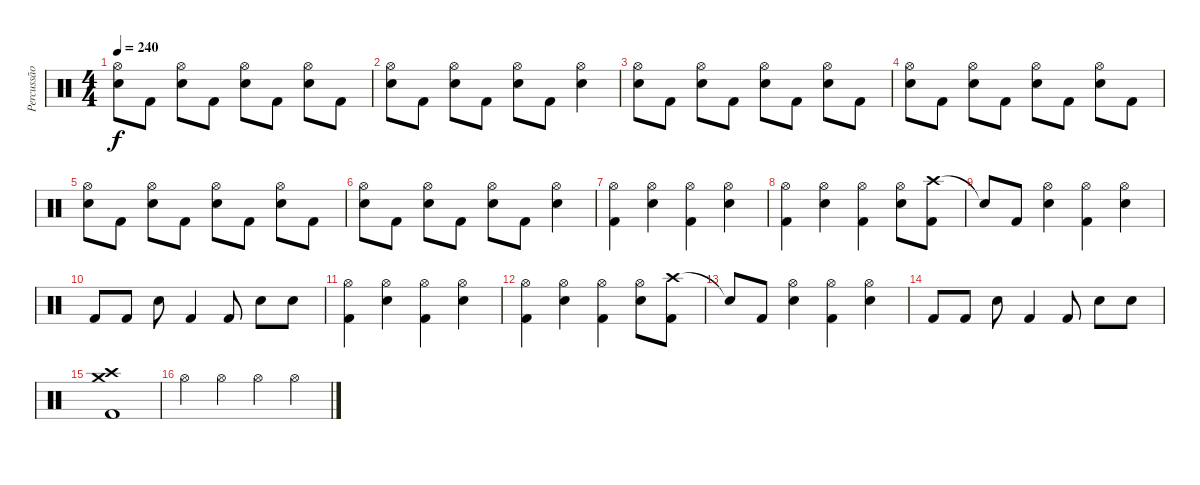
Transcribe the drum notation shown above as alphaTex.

\track ("Percussão" "Percussão") {instrument percussion}
\staff {score}
\articulation defaults
\ts (4 4)
\tempo 240
\clef neutral
\ks c
("Hi-Hat (open)" "Electric Snare (hit)").8{dy f} "Kick (hit) 2".8 ("Hi-Hat (open)" "Electric Snare (hit)").8 "Kick (hit) 2".8 ("Hi-Hat (open)" "Electric Snare (hit)").8 "Kick (hit) 2".8 ("Hi-Hat (open)" "Electric Snare (hit)").8 "Kick (hit) 2".8 |
("Hi-Hat (open)" "Electric Snare (hit)").8 "Kick (hit) 2".8 ("Hi-Hat (open)" "Electric Snare (hit)").8 "Kick (hit) 2".8 ("Hi-Hat (open)" "Electric Snare (hit)").8 "Kick (hit) 2".8 ("Hi-Hat (open)" "Electric Snare (hit)").4 |
("Hi-Hat (open)" "Electric Snare (hit)").8 "Kick (hit) 2".8 ("Hi-Hat (open)" "Electric Snare (hit)").8 "Kick (hit) 2".8 ("Hi-Hat (open)" "Electric Snare (hit)").8 "Kick (hit) 2".8 ("Hi-Hat (open)" "Electric Snare (hit)").8 "Kick (hit) 2".8 |
("Hi-Hat (open)" "Electric Snare (hit)").8 "Kick (hit) 2".8 ("Hi-Hat (open)" "Electric Snare (hit)").8 "Kick (hit) 2".8 ("Hi-Hat (open)" "Electric Snare (hit)").8 "Kick (hit) 2".8 ("Hi-Hat (open)" "Electric Snare (hit)").8 "Kick (hit) 2".8 |
("Hi-Hat (open)" "Electric Snare (hit)").8 "Kick (hit) 2".8 ("Hi-Hat (open)" "Electric Snare (hit)").8 "Kick (hit) 2".8 ("Hi-Hat (open)" "Electric Snare (hit)").8 "Kick (hit) 2".8 ("Hi-Hat (open)" "Electric Snare (hit)").8 "Kick (hit) 2".8 |
("Hi-Hat (open)" "Electric Snare (hit)").8 "Kick (hit) 2".8 ("Hi-Hat (open)" "Electric Snare (hit)").8 "Kick (hit) 2".8 ("Hi-Hat (open)" "Electric Snare (hit)").8 "Kick (hit) 2".8 ("Hi-Hat (open)" "Electric Snare (hit)").4 |
("Hi-Hat (open)" "Kick (hit) 2").4 ("Hi-Hat (open)" "Electric Snare (hit)").4 ("Hi-Hat (open)" "Kick (hit) 2").4 ("Hi-Hat (open)" "Electric Snare (hit)").4 |
("Hi-Hat (open)" "Kick (hit) 2").4 ("Hi-Hat (open)" "Electric Snare (hit)").4 ("Hi-Hat (open)" "Kick (hit) 2").4 ("Hi-Hat (open)" "Electric Snare (hit)").8 ("Crash high (hit)" "Kick (hit) 2").8 |
"Snare (hit)"{t}.8 "Kick (hit) 2".8 ("Hi-Hat (open)" "Electric Snare (hit)").4 ("Hi-Hat (open)" "Kick (hit) 2").4 ("Hi-Hat (open)" "Electric Snare (hit)").4 |
"Kick (hit) 2".8 "Kick (hit) 2".8 "Electric Snare (hit)".8 "Kick (hit) 2".4 "Kick (hit) 2".8 "Electric Snare (hit)".8 "Electric Snare (hit)".8 |
("Hi-Hat (open)" "Kick (hit) 2").4 ("Hi-Hat (open)" "Electric Snare (hit)").4 ("Hi-Hat (open)" "Kick (hit) 2").4 ("Hi-Hat (open)" "Electric Snare (hit)").4 |
("Hi-Hat (open)" "Kick (hit) 2").4 ("Hi-Hat (open)" "Electric Snare (hit)").4 ("Hi-Hat (open)" "Kick (hit) 2").4 ("Hi-Hat (open)" "Electric Snare (hit)").8 ("Crash high (hit)" "Kick (hit) 2").8 |
"Snare (hit)"{t}.8 "Kick (hit) 2".8 ("Hi-Hat (open)" "Electric Snare (hit)").4 ("Hi-Hat (open)" "Kick (hit) 2").4 ("Hi-Hat (open)" "Electric Snare (hit)").4 |
"Kick (hit) 2".8 "Kick (hit) 2".8 "Electric Snare (hit)".8 "Kick (hit) 2".4 "Kick (hit) 2".8 "Electric Snare (hit)".8 "Electric Snare (hit)".8 |
("Crash medium (hit)" "Kick (hit) 2" "Crash high (hit)").1 |
"Hi-Hat (open)".4 "Hi-Hat (open)".4 "Hi-Hat (open)".4 "Hi-Hat (open)".4
